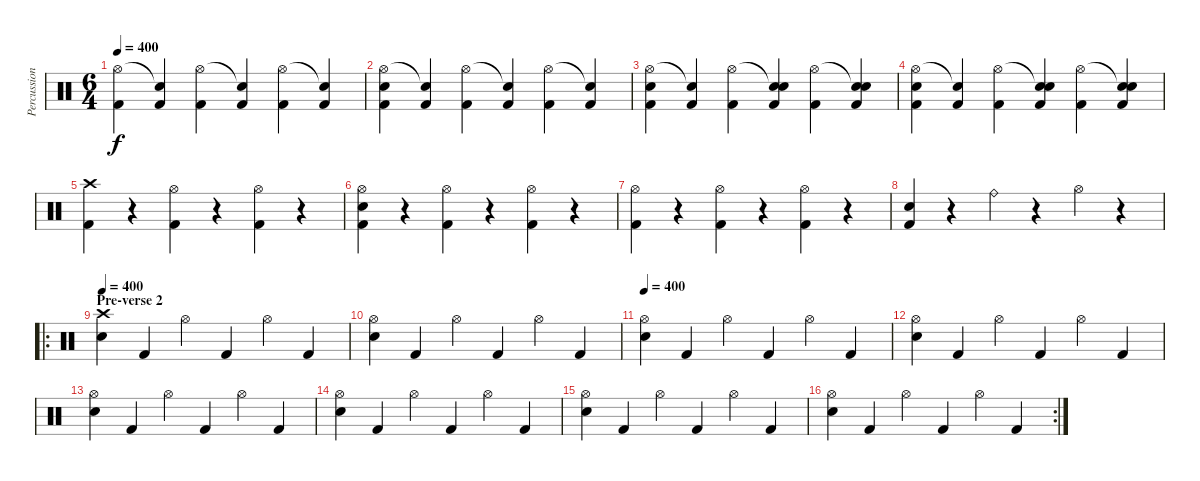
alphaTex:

\track ("Percussion" "Percussion") {instrument percussion}
\staff {score}
\articulation defaults
\ts (6 4)
\tempo 400
\clef neutral
\ks c
("Hi-Hat (open)" "Kick (hit) 2").4{dy f} ("Snare (hit)"{t} "Kick (hit) 2").4 ("Hi-Hat (open)" "Kick (hit) 2").4 ("Snare (hit)"{t} "Kick (hit) 2").4 ("Hi-Hat (open)" "Kick (hit) 2").4 ("Snare (hit)"{t} "Kick (hit) 2").4 |
("Hi-Hat (open)" "Kick (hit) 2" "Snare (hit) 2").4 ("Snare (hit)"{t} "Kick (hit) 2").4 ("Hi-Hat (open)" "Kick (hit) 2").4 ("Snare (hit)"{t} "Kick (hit) 2").4 ("Hi-Hat (open)" "Kick (hit) 2").4 ("Snare (hit)"{t} "Kick (hit) 2").4 |
("Hi-Hat (open)" "Snare (hit) 2" "Kick (hit) 2").4 ("Snare (hit)"{t} "Kick (hit) 2").4 ("Hi-Hat (open)" "Kick (hit) 2").4 ("Snare (hit)"{t} "Snare (hit) 2" "Kick (hit) 2").4 ("Hi-Hat (open)" "Kick (hit) 2").4 ("Snare (hit)"{t} "Snare (hit) 2" "Kick (hit) 2").4 |
("Hi-Hat (open)" "Kick (hit) 2" "Snare (hit) 2").4 ("Snare (hit)"{t} "Kick (hit) 2").4 ("Hi-Hat (open)" "Kick (hit) 2").4 ("Snare (hit)"{t} "Snare (hit) 2" "Kick (hit) 2").4 ("Hi-Hat (open)" "Kick (hit) 2").4 ("Snare (hit)"{t} "Kick (hit) 2" "Snare (hit) 2").4 |
("Crash high (hit)" "Kick (hit) 2").4 r.4 ("Hi-Hat (open)" "Kick (hit) 2").4 r.4 ("Hi-Hat (open)" "Kick (hit) 2").4 r.4 |
("Hi-Hat (open)" "Kick (hit) 2" "Snare (hit) 2").4 r.4 ("Hi-Hat (open)" "Kick (hit) 2").4 r.4 ("Hi-Hat (open)" "Kick (hit) 2").4 r.4 |
("Hi-Hat (open)" "Kick (hit) 2").4 r.4 ("Hi-Hat (open)" "Kick (hit) 2").4 r.4 ("Hi-Hat (open)" "Kick (hit) 2").4 r.4 |
("Kick (hit) 2" "Snare (hit) 2").4 r.4 "Ride (bell)".4 r.4 "Hi-Hat (open)".4 r.4 |
\ro
\section ("" "Pre-verse 2")
\tempo 400
("Crash high (hit)" "Snare (hit) 2").4 "Kick (hit) 2".4 "Hi-Hat (open)".4 "Kick (hit) 2".4 "Hi-Hat (open)".4 "Kick (hit) 2".4 |
("Hi-Hat (open)" "Snare (hit) 2").4 "Kick (hit) 2".4 "Hi-Hat (open)".4 "Kick (hit) 2".4 "Hi-Hat (open)".4 "Kick (hit) 2".4 |
\tempo 400
("Hi-Hat (open)" "Snare (hit) 2").4 "Kick (hit) 2".4 "Hi-Hat (open)".4 "Kick (hit) 2".4 "Hi-Hat (open)".4 "Kick (hit) 2".4 |
("Hi-Hat (open)" "Snare (hit) 2").4 "Kick (hit) 2".4 "Hi-Hat (open)".4 "Kick (hit) 2".4 "Hi-Hat (open)".4 "Kick (hit) 2".4 |
("Hi-Hat (open)" "Snare (hit) 2").4 "Kick (hit) 2".4 "Hi-Hat (open)".4 "Kick (hit) 2".4 "Hi-Hat (open)".4 "Kick (hit) 2".4 |
("Hi-Hat (open)" "Snare (hit) 2").4 "Kick (hit) 2".4 "Hi-Hat (open)".4 "Kick (hit) 2".4 "Hi-Hat (open)".4 "Kick (hit) 2".4 |
("Hi-Hat (open)" "Snare (hit) 2").4 "Kick (hit) 2".4 "Hi-Hat (open)".4 "Kick (hit) 2".4 "Hi-Hat (open)".4 "Kick (hit) 2".4 |
\rc 2
("Hi-Hat (open)" "Snare (hit) 2").4 "Kick (hit) 2".4 "Hi-Hat (open)".4 "Kick (hit) 2".4 "Hi-Hat (open)".4 "Kick (hit) 2".4
